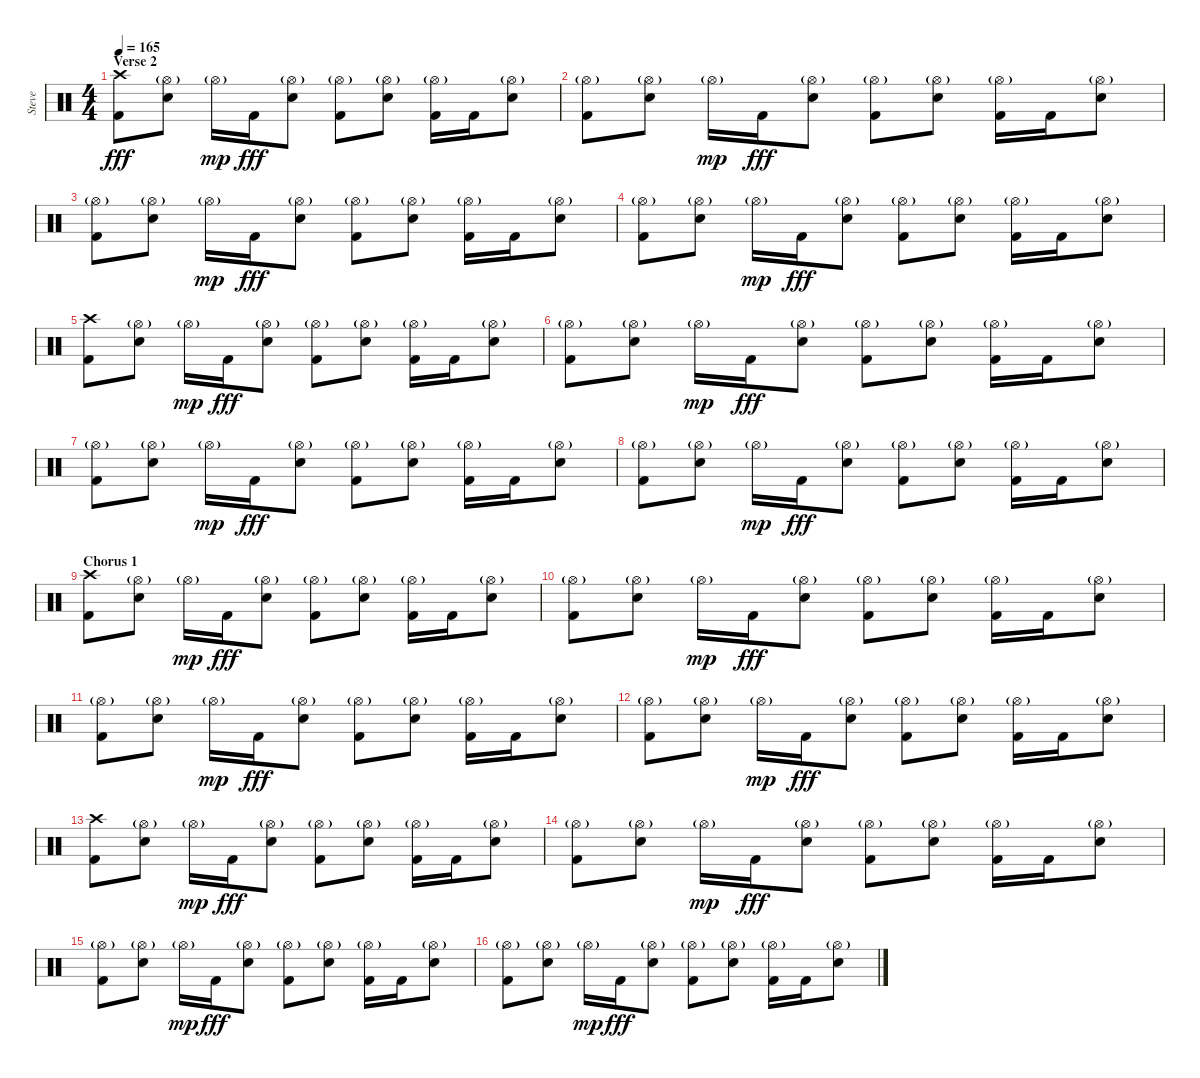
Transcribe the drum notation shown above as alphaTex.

\track ("Steve" "Steve") {instrument percussion}
\staff {score}
\articulation defaults
\ts (4 4)
\section ("" "Verse 2")
\tempo 165
\clef neutral
\ks c
("Crash high (hit)" "Kick (hit) 2").8{dy fff} ("Hi-Hat (open)"{g} "Electric Snare (hit)").8 "Hi-Hat (open)"{g}.16{dy mp} "Kick (hit) 2".16{dy fff} ("Hi-Hat (open)"{g} "Electric Snare (hit)").8 ("Hi-Hat (open)"{g} "Kick (hit) 2").8 ("Hi-Hat (open)"{g} "Electric Snare (hit)").8 ("Hi-Hat (open)"{g} "Kick (hit) 2").16 "Kick (hit) 2".16 ("Hi-Hat (open)"{g} "Electric Snare (hit)").8 |
("Hi-Hat (open)"{g} "Kick (hit) 2").8 ("Hi-Hat (open)"{g} "Electric Snare (hit)").8 "Hi-Hat (open)"{g}.16{dy mp} "Kick (hit) 2".16{dy fff} ("Hi-Hat (open)"{g} "Electric Snare (hit)").8 ("Hi-Hat (open)"{g} "Kick (hit) 2").8 ("Hi-Hat (open)"{g} "Electric Snare (hit)").8 ("Hi-Hat (open)"{g} "Kick (hit) 2").16 "Kick (hit) 2".16 ("Hi-Hat (open)"{g} "Electric Snare (hit)").8 |
("Hi-Hat (open)"{g} "Kick (hit) 2").8 ("Hi-Hat (open)"{g} "Electric Snare (hit)").8 "Hi-Hat (open)"{g}.16{dy mp} "Kick (hit) 2".16{dy fff} ("Hi-Hat (open)"{g} "Electric Snare (hit)").8 ("Hi-Hat (open)"{g} "Kick (hit) 2").8 ("Hi-Hat (open)"{g} "Electric Snare (hit)").8 ("Hi-Hat (open)"{g} "Kick (hit) 2").16 "Kick (hit) 2".16 ("Hi-Hat (open)"{g} "Electric Snare (hit)").8 |
("Hi-Hat (open)"{g} "Kick (hit) 2").8 ("Hi-Hat (open)"{g} "Electric Snare (hit)").8 "Hi-Hat (open)"{g}.16{dy mp} "Kick (hit) 2".16{dy fff} ("Hi-Hat (open)"{g} "Electric Snare (hit)").8 ("Hi-Hat (open)"{g} "Kick (hit) 2").8 ("Hi-Hat (open)"{g} "Electric Snare (hit)").8 ("Hi-Hat (open)"{g} "Kick (hit) 2").16 "Kick (hit) 2".16 ("Hi-Hat (open)"{g} "Electric Snare (hit)").8 |
("Crash high (hit)" "Kick (hit) 2").8 ("Hi-Hat (open)"{g} "Electric Snare (hit)").8 "Hi-Hat (open)"{g}.16{dy mp} "Kick (hit) 2".16{dy fff} ("Hi-Hat (open)"{g} "Electric Snare (hit)").8 ("Hi-Hat (open)"{g} "Kick (hit) 2").8 ("Hi-Hat (open)"{g} "Electric Snare (hit)").8 ("Hi-Hat (open)"{g} "Kick (hit) 2").16 "Kick (hit) 2".16 ("Hi-Hat (open)"{g} "Electric Snare (hit)").8 |
("Hi-Hat (open)"{g} "Kick (hit) 2").8 ("Hi-Hat (open)"{g} "Electric Snare (hit)").8 "Hi-Hat (open)"{g}.16{dy mp} "Kick (hit) 2".16{dy fff} ("Hi-Hat (open)"{g} "Electric Snare (hit)").8 ("Hi-Hat (open)"{g} "Kick (hit) 2").8 ("Hi-Hat (open)"{g} "Electric Snare (hit)").8 ("Hi-Hat (open)"{g} "Kick (hit) 2").16 "Kick (hit) 2".16 ("Hi-Hat (open)"{g} "Electric Snare (hit)").8 |
("Hi-Hat (open)"{g} "Kick (hit) 2").8 ("Hi-Hat (open)"{g} "Electric Snare (hit)").8 "Hi-Hat (open)"{g}.16{dy mp} "Kick (hit) 2".16{dy fff} ("Hi-Hat (open)"{g} "Electric Snare (hit)").8 ("Hi-Hat (open)"{g} "Kick (hit) 2").8 ("Hi-Hat (open)"{g} "Electric Snare (hit)").8 ("Hi-Hat (open)"{g} "Kick (hit) 2").16 "Kick (hit) 2".16 ("Hi-Hat (open)"{g} "Electric Snare (hit)").8 |
("Hi-Hat (open)"{g} "Kick (hit) 2").8 ("Hi-Hat (open)"{g} "Electric Snare (hit)").8 "Hi-Hat (open)"{g}.16{dy mp} "Kick (hit) 2".16{dy fff} ("Hi-Hat (open)"{g} "Electric Snare (hit)").8 ("Hi-Hat (open)"{g} "Kick (hit) 2").8 ("Hi-Hat (open)"{g} "Electric Snare (hit)").8 ("Hi-Hat (open)"{g} "Kick (hit) 2").16 "Kick (hit) 2".16 ("Hi-Hat (open)"{g} "Electric Snare (hit)").8 |
\section ("" "Chorus 1")
("Crash high (hit)" "Kick (hit) 2").8 ("Hi-Hat (open)"{g} "Electric Snare (hit)").8 "Hi-Hat (open)"{g}.16{dy mp} "Kick (hit) 2".16{dy fff} ("Hi-Hat (open)"{g} "Electric Snare (hit)").8 ("Hi-Hat (open)"{g} "Kick (hit) 2").8 ("Hi-Hat (open)"{g} "Electric Snare (hit)").8 ("Hi-Hat (open)"{g} "Kick (hit) 2").16 "Kick (hit) 2".16 ("Hi-Hat (open)"{g} "Electric Snare (hit)").8 |
("Hi-Hat (open)"{g} "Kick (hit) 2").8 ("Hi-Hat (open)"{g} "Electric Snare (hit)").8 "Hi-Hat (open)"{g}.16{dy mp} "Kick (hit) 2".16{dy fff} ("Hi-Hat (open)"{g} "Electric Snare (hit)").8 ("Hi-Hat (open)"{g} "Kick (hit) 2").8 ("Hi-Hat (open)"{g} "Electric Snare (hit)").8 ("Hi-Hat (open)"{g} "Kick (hit) 2").16 "Kick (hit) 2".16 ("Hi-Hat (open)"{g} "Electric Snare (hit)").8 |
("Hi-Hat (open)"{g} "Kick (hit) 2").8 ("Hi-Hat (open)"{g} "Electric Snare (hit)").8 "Hi-Hat (open)"{g}.16{dy mp} "Kick (hit) 2".16{dy fff} ("Hi-Hat (open)"{g} "Electric Snare (hit)").8 ("Hi-Hat (open)"{g} "Kick (hit) 2").8 ("Hi-Hat (open)"{g} "Electric Snare (hit)").8 ("Hi-Hat (open)"{g} "Kick (hit) 2").16 "Kick (hit) 2".16 ("Hi-Hat (open)"{g} "Electric Snare (hit)").8 |
("Hi-Hat (open)"{g} "Kick (hit) 2").8 ("Hi-Hat (open)"{g} "Electric Snare (hit)").8 "Hi-Hat (open)"{g}.16{dy mp} "Kick (hit) 2".16{dy fff} ("Hi-Hat (open)"{g} "Electric Snare (hit)").8 ("Hi-Hat (open)"{g} "Kick (hit) 2").8 ("Hi-Hat (open)"{g} "Electric Snare (hit)").8 ("Hi-Hat (open)"{g} "Kick (hit) 2").16 "Kick (hit) 2".16 ("Hi-Hat (open)"{g} "Electric Snare (hit)").8 |
("Crash high (hit)" "Kick (hit) 2").8 ("Hi-Hat (open)"{g} "Electric Snare (hit)").8 "Hi-Hat (open)"{g}.16{dy mp} "Kick (hit) 2".16{dy fff} ("Hi-Hat (open)"{g} "Electric Snare (hit)").8 ("Hi-Hat (open)"{g} "Kick (hit) 2").8 ("Hi-Hat (open)"{g} "Electric Snare (hit)").8 ("Hi-Hat (open)"{g} "Kick (hit) 2").16 "Kick (hit) 2".16 ("Hi-Hat (open)"{g} "Electric Snare (hit)").8 |
("Hi-Hat (open)"{g} "Kick (hit) 2").8 ("Hi-Hat (open)"{g} "Electric Snare (hit)").8 "Hi-Hat (open)"{g}.16{dy mp} "Kick (hit) 2".16{dy fff} ("Hi-Hat (open)"{g} "Electric Snare (hit)").8 ("Hi-Hat (open)"{g} "Kick (hit) 2").8 ("Hi-Hat (open)"{g} "Electric Snare (hit)").8 ("Hi-Hat (open)"{g} "Kick (hit) 2").16 "Kick (hit) 2".16 ("Hi-Hat (open)"{g} "Electric Snare (hit)").8 |
("Hi-Hat (open)"{g} "Kick (hit) 2").8 ("Hi-Hat (open)"{g} "Electric Snare (hit)").8 "Hi-Hat (open)"{g}.16{dy mp} "Kick (hit) 2".16{dy fff} ("Hi-Hat (open)"{g} "Electric Snare (hit)").8 ("Hi-Hat (open)"{g} "Kick (hit) 2").8 ("Hi-Hat (open)"{g} "Electric Snare (hit)").8 ("Hi-Hat (open)"{g} "Kick (hit) 2").16 "Kick (hit) 2".16 ("Hi-Hat (open)"{g} "Electric Snare (hit)").8 |
("Hi-Hat (open)"{g} "Kick (hit) 2").8 ("Hi-Hat (open)"{g} "Electric Snare (hit)").8 "Hi-Hat (open)"{g}.16{dy mp} "Kick (hit) 2".16{dy fff} ("Hi-Hat (open)"{g} "Electric Snare (hit)").8 ("Hi-Hat (open)"{g} "Kick (hit) 2").8 ("Hi-Hat (open)"{g} "Electric Snare (hit)").8 ("Hi-Hat (open)"{g} "Kick (hit) 2").16 "Kick (hit) 2".16 ("Hi-Hat (open)"{g} "Electric Snare (hit)").8
